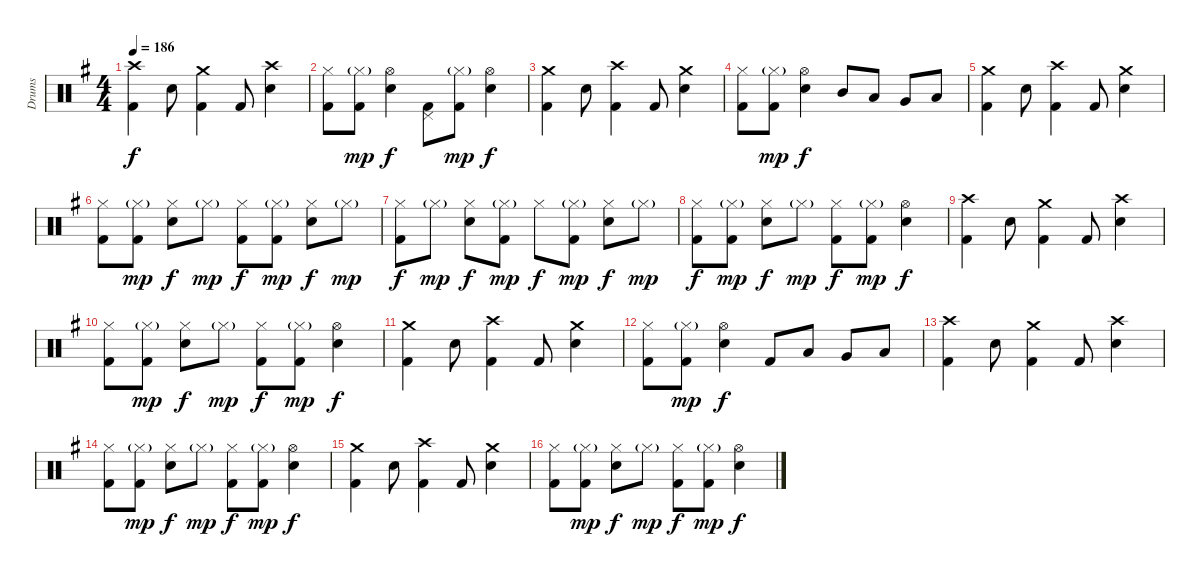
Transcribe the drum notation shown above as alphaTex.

\track ("Drums" "Drums") {instrument percussion}
\staff {score}
\articulation defaults
\ts (4 4)
\tempo 186
\clef neutral
\ks g
("Crash high (hit)" "Kick (hit) 2").4{dy f} "Snare (hit) 2".8 ("Crash medium (hit)" "Kick (hit) 2").4 "Kick (hit) 2".8 ("Crash high (hit)" "Snare (hit) 2").4 |
("Hi-Hat (closed)" "Kick (hit) 2").8 ("Hi-Hat (closed)"{g} "Kick (hit) 2").8{dy mp} ("Hi-Hat (open)" "Snare (hit) 2").4{dy f} ("Pedal Hi-Hat (hit)" "Kick (hit) 2").8 ("Hi-Hat (closed)"{g} "Kick (hit) 2").8{dy mp} ("Hi-Hat (open)" "Snare (hit) 2").4{dy f} |
("Crash medium (hit)" "Kick (hit) 2").4 "Snare (hit) 2".8 ("Crash high (hit)" "Kick (hit) 2").4 "Kick (hit) 2".8 ("Crash medium (hit)" "Snare (hit) 2").4 |
("Hi-Hat (closed)" "Kick (hit) 2").8 ("Hi-Hat (closed)"{g} "Kick (hit) 2").8{dy mp} ("Hi-Hat (open)" "Snare (hit) 2").4{dy f} "Mid Tom (hit)".8 "Low Tom (hit)".8 "Very Low Tom (hit)".8 "Low Floor Tom (hit)".8 |
("Crash medium (hit)" "Kick (hit) 2").4 "Snare (hit) 2".8 ("Crash high (hit)" "Kick (hit) 2").4 "Kick (hit) 2".8 ("Crash medium (hit)" "Snare (hit) 2").4 |
("Hi-Hat (closed)" "Kick (hit) 2").8 ("Hi-Hat (closed)"{g} "Kick (hit) 2").8{dy mp} ("Hi-Hat (closed)" "Snare (hit) 2").8{dy f} "Hi-Hat (closed)"{g}.8{dy mp} ("Hi-Hat (closed)" "Kick (hit) 2").8{dy f} ("Hi-Hat (closed)"{g} "Kick (hit) 2").8{dy mp} ("Hi-Hat (closed)" "Snare (hit) 2").8{dy f} "Hi-Hat (closed)"{g}.8{dy mp} |
("Hi-Hat (closed)" "Kick (hit) 2").8{dy f} "Hi-Hat (closed)"{g}.8{dy mp} ("Hi-Hat (closed)" "Snare (hit) 2").8{dy f} ("Hi-Hat (closed)"{g} "Kick (hit) 2").8{dy mp} "Hi-Hat (closed)".8{dy f} ("Hi-Hat (closed)"{g} "Kick (hit) 2").8{dy mp} ("Hi-Hat (closed)" "Snare (hit) 2").8{dy f} "Hi-Hat (closed)"{g}.8{dy mp} |
("Hi-Hat (closed)" "Kick (hit) 2").8{dy f} ("Hi-Hat (closed)"{g} "Kick (hit) 2").8{dy mp} ("Hi-Hat (closed)" "Snare (hit) 2").8{dy f} "Hi-Hat (closed)"{g}.8{dy mp} ("Hi-Hat (closed)" "Kick (hit) 2").8{dy f} ("Hi-Hat (closed)"{g} "Kick (hit) 2").8{dy mp} ("Hi-Hat (open)" "Snare (hit) 2").4{dy f} |
("Crash high (hit)" "Kick (hit) 2").4 "Snare (hit) 2".8 ("Crash medium (hit)" "Kick (hit) 2").4 "Kick (hit) 2".8 ("Crash high (hit)" "Snare (hit) 2").4 |
("Hi-Hat (closed)" "Kick (hit) 2").8 ("Hi-Hat (closed)"{g} "Kick (hit) 2").8{dy mp} ("Hi-Hat (closed)" "Snare (hit) 2").8{dy f} "Hi-Hat (closed)"{g}.8{dy mp} ("Hi-Hat (closed)" "Kick (hit) 2").8{dy f} ("Hi-Hat (closed)"{g} "Kick (hit) 2").8{dy mp} ("Hi-Hat (open)" "Snare (hit) 2").4{dy f} |
("Crash medium (hit)" "Kick (hit) 2").4 "Snare (hit) 2".8 ("Crash high (hit)" "Kick (hit) 2").4 "Kick (hit) 2".8 ("Crash medium (hit)" "Snare (hit) 2").4 |
("Hi-Hat (closed)" "Kick (hit) 2").8 ("Hi-Hat (closed)"{g} "Kick (hit) 2").8{dy mp} ("Hi-Hat (open)" "Snare (hit) 2").4{dy f} "Kick (hit) 2".8 "Low Tom (hit)".8 "Very Low Tom (hit)".8 "Low Floor Tom (hit)".8 |
("Crash high (hit)" "Kick (hit) 2").4 "Snare (hit) 2".8 ("Crash medium (hit)" "Kick (hit) 2").4 "Kick (hit) 2".8 ("Crash high (hit)" "Snare (hit) 2").4 |
("Hi-Hat (closed)" "Kick (hit) 2").8 ("Hi-Hat (closed)"{g} "Kick (hit) 2").8{dy mp} ("Hi-Hat (closed)" "Snare (hit) 2").8{dy f} "Hi-Hat (closed)"{g}.8{dy mp} ("Hi-Hat (closed)" "Kick (hit) 2").8{dy f} ("Hi-Hat (closed)"{g} "Kick (hit) 2").8{dy mp} ("Hi-Hat (open)" "Snare (hit) 2").4{dy f} |
("Crash medium (hit)" "Kick (hit) 2").4 "Snare (hit) 2".8 ("Crash high (hit)" "Kick (hit) 2").4 "Kick (hit) 2".8 ("Crash medium (hit)" "Snare (hit) 2").4 |
("Hi-Hat (closed)" "Kick (hit) 2").8 ("Hi-Hat (closed)"{g} "Kick (hit) 2").8{dy mp} ("Hi-Hat (closed)" "Snare (hit) 2").8{dy f} "Hi-Hat (closed)"{g}.8{dy mp} ("Hi-Hat (closed)" "Kick (hit) 2").8{dy f} ("Hi-Hat (closed)"{g} "Kick (hit) 2").8{dy mp} ("Hi-Hat (open)" "Snare (hit) 2").4{dy f}
